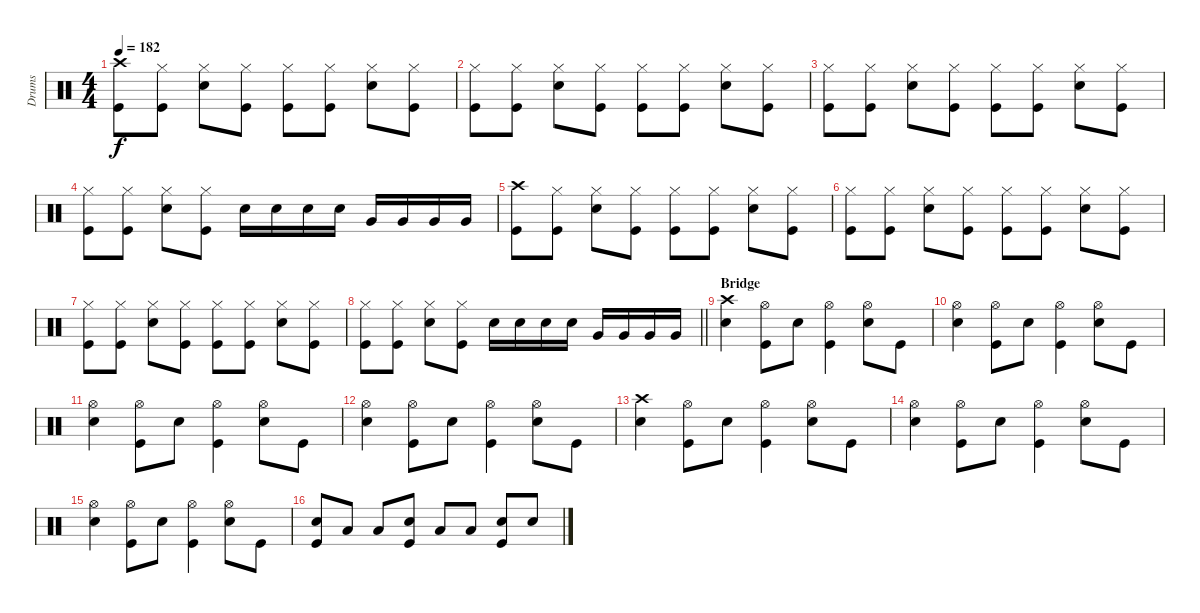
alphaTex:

\track ("Drums" "Drums") {instrument percussion}
\staff {score}
\articulation defaults
\ts (4 4)
\tempo 182
\clef neutral
\ks c
("Crash high (hit)" "Kick (hit)").8{dy f} ("Hi-Hat (closed)" "Kick (hit)").8 ("Hi-Hat (closed)" "Snare (hit) 2").8 ("Hi-Hat (closed)" "Kick (hit)").8 ("Hi-Hat (closed)" "Kick (hit)").8 ("Hi-Hat (closed)" "Kick (hit)").8 ("Hi-Hat (closed)" "Snare (hit) 2").8 ("Hi-Hat (closed)" "Kick (hit)").8 |
("Hi-Hat (closed)" "Kick (hit)").8 ("Hi-Hat (closed)" "Kick (hit)").8 ("Hi-Hat (closed)" "Snare (hit) 2").8 ("Hi-Hat (closed)" "Kick (hit)").8 ("Hi-Hat (closed)" "Kick (hit)").8 ("Hi-Hat (closed)" "Kick (hit)").8 ("Hi-Hat (closed)" "Snare (hit) 2").8 ("Hi-Hat (closed)" "Kick (hit)").8 |
("Hi-Hat (closed)" "Kick (hit)").8 ("Hi-Hat (closed)" "Kick (hit)").8 ("Hi-Hat (closed)" "Snare (hit) 2").8 ("Hi-Hat (closed)" "Kick (hit)").8 ("Hi-Hat (closed)" "Kick (hit)").8 ("Hi-Hat (closed)" "Kick (hit)").8 ("Hi-Hat (closed)" "Snare (hit) 2").8 ("Hi-Hat (closed)" "Kick (hit)").8 |
("Hi-Hat (closed)" "Kick (hit)").8 ("Hi-Hat (closed)" "Kick (hit)").8 ("Hi-Hat (closed)" "Snare (hit) 2").8 ("Hi-Hat (closed)" "Kick (hit)").8 "Snare (hit) 2".16 "Snare (hit) 2".16 "Snare (hit) 2".16 "Snare (hit) 2".16 "Very Low Tom (hit)".16 "Very Low Tom (hit)".16 "Very Low Tom (hit)".16 "Very Low Tom (hit)".16 |
("Crash high (hit)" "Kick (hit)").8 ("Hi-Hat (closed)" "Kick (hit)").8 ("Hi-Hat (closed)" "Snare (hit) 2").8 ("Hi-Hat (closed)" "Kick (hit)").8 ("Hi-Hat (closed)" "Kick (hit)").8 ("Hi-Hat (closed)" "Kick (hit)").8 ("Hi-Hat (closed)" "Snare (hit) 2").8 ("Hi-Hat (closed)" "Kick (hit)").8 |
("Hi-Hat (closed)" "Kick (hit)").8 ("Hi-Hat (closed)" "Kick (hit)").8 ("Hi-Hat (closed)" "Snare (hit) 2").8 ("Hi-Hat (closed)" "Kick (hit)").8 ("Hi-Hat (closed)" "Kick (hit)").8 ("Hi-Hat (closed)" "Kick (hit)").8 ("Hi-Hat (closed)" "Snare (hit) 2").8 ("Hi-Hat (closed)" "Kick (hit)").8 |
("Hi-Hat (closed)" "Kick (hit)").8 ("Hi-Hat (closed)" "Kick (hit)").8 ("Hi-Hat (closed)" "Snare (hit) 2").8 ("Hi-Hat (closed)" "Kick (hit)").8 ("Hi-Hat (closed)" "Kick (hit)").8 ("Hi-Hat (closed)" "Kick (hit)").8 ("Hi-Hat (closed)" "Snare (hit) 2").8 ("Hi-Hat (closed)" "Kick (hit)").8 |
\barLineRight lightlight
("Hi-Hat (closed)" "Kick (hit)").8 ("Hi-Hat (closed)" "Kick (hit)").8 ("Hi-Hat (closed)" "Snare (hit) 2").8 ("Hi-Hat (closed)" "Kick (hit)").8 "Snare (hit) 2".16 "Snare (hit) 2".16 "Snare (hit) 2".16 "Snare (hit) 2".16 "Very Low Tom (hit)".16 "Very Low Tom (hit)".16 "Very Low Tom (hit)".16 "Very Low Tom (hit)".16 |
\section ("" "Bridge")
("Crash high (hit)" "Snare (hit) 2").4 ("Hi-Hat (open)" "Kick (hit)").8 "Snare (hit) 2".8 ("Hi-Hat (open)" "Kick (hit)").4 ("Hi-Hat (open)" "Snare (hit) 2").8 "Kick (hit)".8 |
("Hi-Hat (open)" "Snare (hit) 2").4 ("Hi-Hat (open)" "Kick (hit)").8 "Snare (hit) 2".8 ("Hi-Hat (open)" "Kick (hit)").4 ("Hi-Hat (open)" "Snare (hit) 2").8 "Kick (hit)".8 |
("Hi-Hat (open)" "Snare (hit) 2").4 ("Hi-Hat (open)" "Kick (hit)").8 "Snare (hit) 2".8 ("Hi-Hat (open)" "Kick (hit)").4 ("Hi-Hat (open)" "Snare (hit) 2").8 "Kick (hit)".8 |
("Hi-Hat (open)" "Snare (hit) 2").4 ("Hi-Hat (open)" "Kick (hit)").8 "Snare (hit) 2".8 ("Hi-Hat (open)" "Kick (hit)").4 ("Hi-Hat (open)" "Snare (hit) 2").8 "Kick (hit)".8 |
("Crash high (hit)" "Snare (hit) 2").4 ("Hi-Hat (open)" "Kick (hit)").8 "Snare (hit) 2".8 ("Hi-Hat (open)" "Kick (hit)").4 ("Hi-Hat (open)" "Snare (hit) 2").8 "Kick (hit)".8 |
("Hi-Hat (open)" "Snare (hit) 2").4 ("Hi-Hat (open)" "Kick (hit)").8 "Snare (hit) 2".8 ("Hi-Hat (open)" "Kick (hit)").4 ("Hi-Hat (open)" "Snare (hit) 2").8 "Kick (hit)".8 |
("Hi-Hat (open)" "Snare (hit) 2").4 ("Hi-Hat (open)" "Kick (hit)").8 "Snare (hit) 2".8 ("Hi-Hat (open)" "Kick (hit)").4 ("Hi-Hat (open)" "Snare (hit) 2").8 "Kick (hit)".8 |
("Snare (hit) 2" "Kick (hit)").8 "Low Tom (hit)".8 "Low Tom (hit)".8 ("Snare (hit) 2" "Kick (hit)").8 "Low Tom (hit)".8 "Low Tom (hit)".8 ("Snare (hit) 2" "Kick (hit)").8 "Snare (hit) 2".8
